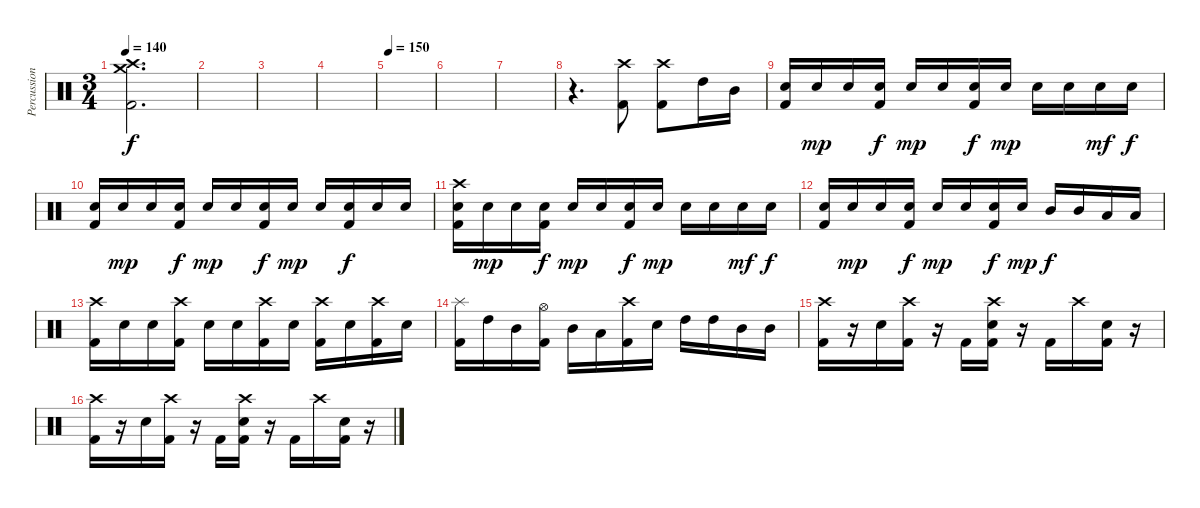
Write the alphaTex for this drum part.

\track ("Percussion" "Percussion") {instrument percussion}
\staff {score}
\articulation defaults
\ts (3 4)
\tempo 140
\clef neutral
\ks c
("Crash high (hit)" "Crash medium (hit)" "Kick (hit) 2").2{d dy f} |
|
|
|
\tempo 150
|
|
|
r.4{d} ("Crash high (hit)" "Kick (hit) 2").8 ("Crash high (hit)" "Kick (hit) 2").8 "High Tom (hit)".16 "Mid Tom (hit)".16 |
("Electric Snare (hit)" "Kick (hit) 2").16 "Electric Snare (hit)".16{dy mp} "Electric Snare (hit)".16 ("Electric Snare (hit)" "Kick (hit) 2").16{dy f} "Electric Snare (hit)".16{dy mp} "Electric Snare (hit)".16 ("Electric Snare (hit)" "Kick (hit) 2").16{dy f} "Electric Snare (hit)".16{dy mp} "Electric Snare (hit)".16 "Electric Snare (hit)".16 "Electric Snare (hit)".16{dy mf} "Electric Snare (hit)".16{dy f} |
("Electric Snare (hit)" "Kick (hit) 2").16 "Electric Snare (hit)".16{dy mp} "Electric Snare (hit)".16 ("Electric Snare (hit)" "Kick (hit) 2").16{dy f} "Electric Snare (hit)".16{dy mp} "Electric Snare (hit)".16 ("Electric Snare (hit)" "Kick (hit) 2").16{dy f} "Electric Snare (hit)".16{dy mp} "Electric Snare (hit)".16 ("Electric Snare (hit)" "Kick (hit) 2").16{dy f} "Electric Snare (hit)".16 "Electric Snare (hit)".16 |
("Crash high (hit)" "Electric Snare (hit)" "Kick (hit) 2").16 "Electric Snare (hit)".16{dy mp} "Electric Snare (hit)".16 ("Electric Snare (hit)" "Kick (hit) 2").16{dy f} "Electric Snare (hit)".16{dy mp} "Electric Snare (hit)".16 ("Electric Snare (hit)" "Kick (hit) 2").16{dy f} "Electric Snare (hit)".16{dy mp} "Electric Snare (hit)".16 "Electric Snare (hit)".16 "Electric Snare (hit)".16{dy mf} "Electric Snare (hit)".16{dy f} |
("Electric Snare (hit)" "Kick (hit) 2").16 "Electric Snare (hit)".16{dy mp} "Electric Snare (hit)".16 ("Electric Snare (hit)" "Kick (hit) 2").16{dy f} "Electric Snare (hit)".16{dy mp} "Electric Snare (hit)".16 ("Electric Snare (hit)" "Kick (hit) 2").16{dy f} "Electric Snare (hit)".16{dy mp} "Mid Tom (hit)".16{dy f} "Mid Tom (hit)".16 "Low Tom (hit)".16 "Low Tom (hit)".16 |
("Crash high (hit)" "Kick (hit) 2").16 "Electric Snare (hit)".16 "Electric Snare (hit)".16 ("Crash high (hit)" "Kick (hit) 2").16 "Electric Snare (hit)".16 "Electric Snare (hit)".16 ("Crash high (hit)" "Kick (hit) 2").16 "Electric Snare (hit)".16 ("Crash high (hit)" "Kick (hit) 2").16 "Electric Snare (hit)".16 ("Crash high (hit)" "Kick (hit) 2").16 "Electric Snare (hit)".16 |
("Splash (hit)" "Kick (hit) 2").16 "High Tom (hit)".16 "Mid Tom (hit)".16 ("Hi-Hat (open)" "Kick (hit) 2").16 "Mid Tom (hit)".16 "Low Tom (hit)".16 ("Crash high (hit)" "Kick (hit) 2").16 "Electric Snare (hit)".16 "High Tom (hit)".16 "High Tom (hit)".16 "Mid Tom (hit)".16 "Mid Tom (hit)".16 |
("Crash high (hit)" "Kick (hit) 2").16 r.16 "Electric Snare (hit)".16 ("Crash high (hit)" "Kick (hit) 2").16 r.16 "Kick (hit) 2".16 ("Crash high (hit)" "Electric Snare (hit)" "Kick (hit) 2").16 r.16 "Kick (hit) 2".16 "Crash high (hit)".16 ("Electric Snare (hit)" "Kick (hit) 2").16 r.16 |
("Crash high (hit)" "Kick (hit) 2").16 r.16 "Electric Snare (hit)".16 ("Crash high (hit)" "Kick (hit) 2").16 r.16 "Kick (hit) 2".16 ("Crash high (hit)" "Electric Snare (hit)" "Kick (hit) 2").16 r.16 "Kick (hit) 2".16 "Crash high (hit)".16 ("Electric Snare (hit)" "Kick (hit) 2").16 r.16
